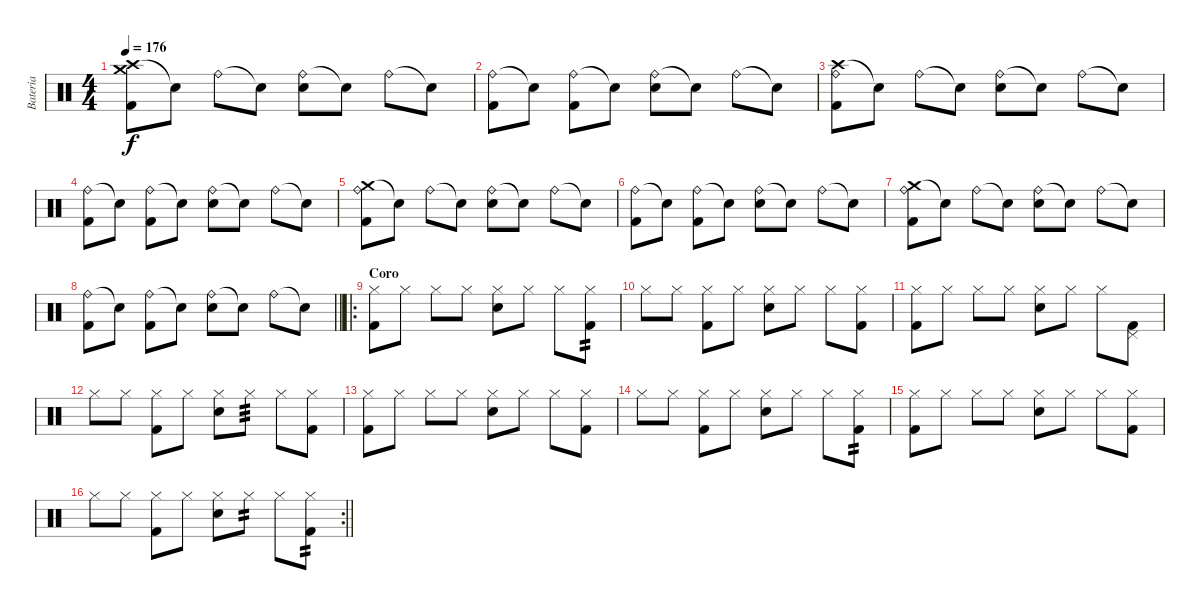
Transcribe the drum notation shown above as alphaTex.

\track ("Bateria" "Bateria") {instrument percussion}
\staff {score}
\articulation defaults
\ts (4 4)
\tempo 176
\clef neutral
\ks c
("Crash high (hit)" "Crash medium (hit)" "Kick (hit) 2").8{dy f} "Snare (hit)"{t}.8 "Ride (bell)".8 "Snare (hit)"{t}.8 ("Ride (bell)" "Electric Snare (hit)").8 "Snare (hit)"{t}.8 "Ride (bell)".8 "Snare (hit)"{t}.8 |
("Ride (bell)" "Kick (hit) 2").8 "Snare (hit)"{t}.8 ("Ride (bell)" "Kick (hit) 2").8 "Snare (hit)"{t}.8 ("Ride (bell)" "Electric Snare (hit)").8 "Snare (hit)"{t}.8 "Ride (bell)".8 "Snare (hit)"{t}.8 |
("Crash high (hit)" "Ride (bell)" "Kick (hit) 2").8 "Snare (hit)"{t}.8 "Ride (bell)".8 "Snare (hit)"{t}.8 ("Ride (bell)" "Electric Snare (hit)").8 "Snare (hit)"{t}.8 "Ride (bell)".8 "Snare (hit)"{t}.8 |
("Ride (bell)" "Kick (hit) 2").8 "Snare (hit)"{t}.8 ("Ride (bell)" "Kick (hit) 2").8 "Snare (hit)"{t}.8 ("Ride (bell)" "Electric Snare (hit)").8 "Snare (hit)"{t}.8 "Ride (bell)".8 "Snare (hit)"{t}.8 |
("Crash medium (hit)" "Ride (bell)" "Kick (hit) 2").8 "Snare (hit)"{t}.8 "Ride (bell)".8 "Snare (hit)"{t}.8 ("Ride (bell)" "Electric Snare (hit)").8 "Snare (hit)"{t}.8 "Ride (bell)".8 "Snare (hit)"{t}.8 |
("Ride (bell)" "Kick (hit) 2").8 "Snare (hit)"{t}.8 ("Ride (bell)" "Kick (hit) 2").8 "Snare (hit)"{t}.8 ("Ride (bell)" "Electric Snare (hit)").8 "Snare (hit)"{t}.8 "Ride (bell)".8 "Snare (hit)"{t}.8 |
("Crash medium (hit)" "Ride (bell)" "Kick (hit) 2").8 "Snare (hit)"{t}.8 "Ride (bell)".8 "Snare (hit)"{t}.8 ("Ride (bell)" "Electric Snare (hit)").8 "Snare (hit)"{t}.8 "Ride (bell)".8 "Snare (hit)"{t}.8 |
\barLineRight lightlight
("Ride (bell)" "Kick (hit) 2").8 "Snare (hit)"{t}.8 ("Ride (bell)" "Kick (hit) 2").8 "Snare (hit)"{t}.8 ("Ride (bell)" "Electric Snare (hit)").8 "Snare (hit)"{t}.8 "Ride (bell)".8 "Snare (hit)"{t}.8 |
\ro
\section ("" "Coro")
("Hi-Hat (closed)" "Kick (hit) 2").8 "Hi-Hat (closed)".8 "Hi-Hat (closed)".8 "Hi-Hat (closed)".8 ("Hi-Hat (closed)" "Electric Snare (hit)").8 "Hi-Hat (closed)".8 "Hi-Hat (closed)".8 ("Hi-Hat (closed)" "Kick (hit) 2").8{tp 2} |
"Hi-Hat (closed)".8 "Hi-Hat (closed)".8 ("Hi-Hat (closed)" "Kick (hit) 2").8 "Hi-Hat (closed)".8 ("Hi-Hat (closed)" "Electric Snare (hit)").8 "Hi-Hat (closed)".8 "Hi-Hat (closed)".8 ("Hi-Hat (closed)" "Kick (hit) 2").8 |
("Hi-Hat (closed)" "Kick (hit) 2").8 "Hi-Hat (closed)".8 "Hi-Hat (closed)".8 "Hi-Hat (closed)".8 ("Hi-Hat (closed)" "Electric Snare (hit)").8 "Hi-Hat (closed)".8 "Hi-Hat (closed)".8 ("Pedal Hi-Hat (hit)" "Kick (hit) 2").8 |
"Hi-Hat (closed)".8 "Hi-Hat (closed)".8 ("Hi-Hat (closed)" "Kick (hit) 2").8 "Hi-Hat (closed)".8 ("Hi-Hat (closed)" "Electric Snare (hit)").8 "Hi-Hat (closed)".8{tp 3} "Hi-Hat (closed)".8 ("Hi-Hat (closed)" "Kick (hit) 2").8 |
("Hi-Hat (closed)" "Kick (hit) 2").8 "Hi-Hat (closed)".8 "Hi-Hat (closed)".8 "Hi-Hat (closed)".8 ("Hi-Hat (closed)" "Electric Snare (hit)").8 "Hi-Hat (closed)".8 "Hi-Hat (closed)".8 ("Hi-Hat (closed)" "Kick (hit) 2").8 |
"Hi-Hat (closed)".8 "Hi-Hat (closed)".8 ("Hi-Hat (closed)" "Kick (hit) 2").8 "Hi-Hat (closed)".8 ("Hi-Hat (closed)" "Electric Snare (hit)").8 "Hi-Hat (closed)".8 "Hi-Hat (closed)".8 ("Hi-Hat (closed)" "Kick (hit) 2").8{tp 2} |
("Hi-Hat (closed)" "Kick (hit) 2").8 "Hi-Hat (closed)".8 "Hi-Hat (closed)".8 "Hi-Hat (closed)".8 ("Hi-Hat (closed)" "Electric Snare (hit)").8 "Hi-Hat (closed)".8 "Hi-Hat (closed)".8 ("Hi-Hat (closed)" "Kick (hit) 2").8 |
\rc 2
\barLineRight lightlight "Hi-Hat (closed)".8 "Hi-Hat (closed)".8
("Hi-Hat (closed)" "Kick (hit) 2").8 "Hi-Hat (closed)".8 ("Hi-Hat (closed)" "Electric Snare (hit)").8 "Hi-Hat (closed)".8{tp 2} "Hi-Hat (closed)".8 ("Hi-Hat (closed)" "Kick (hit) 2").8{tp 2}
